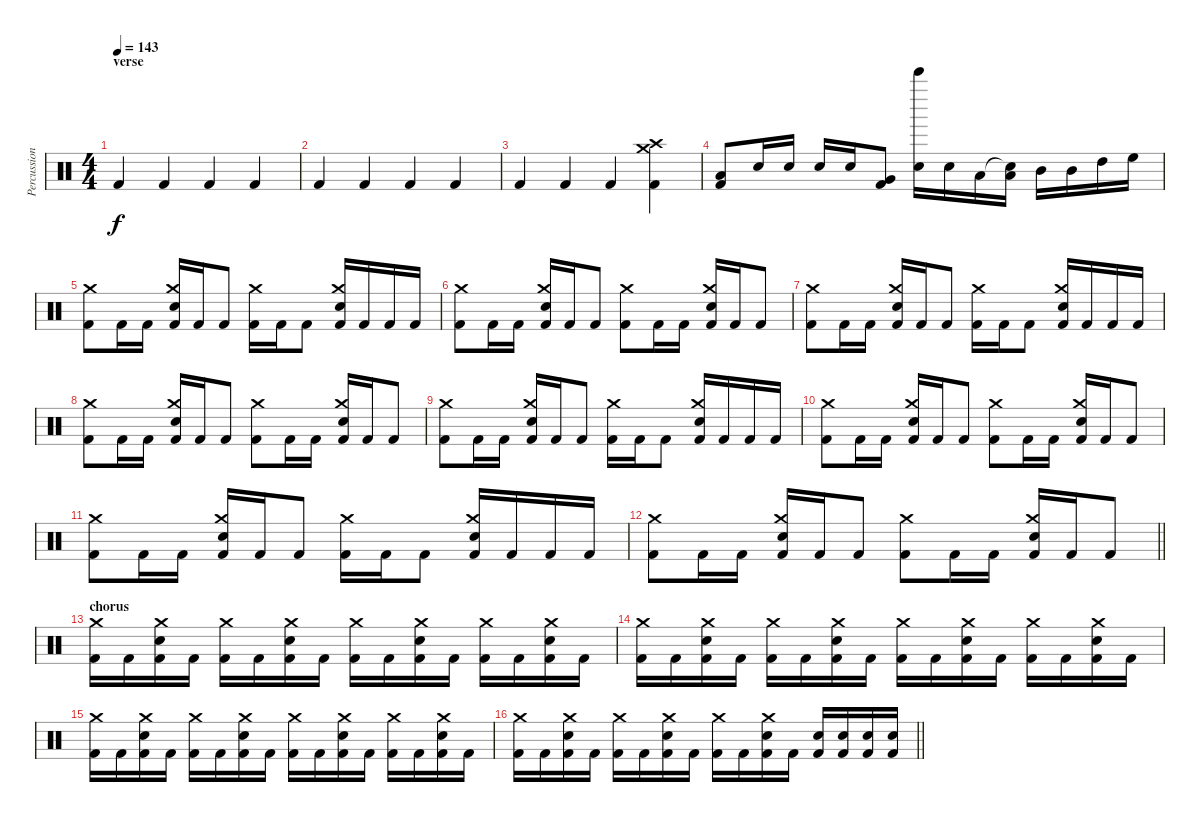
\track ("Percussion" "Percussion") {instrument percussion}
\staff {score}
\articulation defaults
\ts (4 4)
\section ("" "verse")
\tempo 143
\clef neutral
\ks c "Kick (hit) 2".4{dy f} "Kick (hit) 2".4 "Kick (hit) 2".4 "Kick (hit) 2".4
|
"Kick (hit) 2".4 "Kick (hit) 2".4 "Kick (hit) 2".4 "Kick (hit) 2".4 |
"Kick (hit) 2".4 "Kick (hit) 2".4 "Kick (hit) 2".4 ("Crash high (hit)" "Crash medium (hit)" "Kick (hit) 2").4 |
("Low Floor Tom (hit)" "Kick (hit) 2").8 "Snare (hit) 2".16 "Snare (hit) 2".16 "Snare (hit) 2".16 "Snare (hit) 2".16 ("Very Low Tom (hit)" "Kick (hit) 2").8 ("Bell Tree (hit)" "Snare (hit) 2").16 "Snare (hit) 2".16 "Low Tom (hit)".16 ("Snare (hit)"{t} "Low Tom (hit)").16 "Mid Tom (hit)".16 "Mid Tom (hit)".16 "High Tom (hit)".16 "High Floor Tom (hit)".16 |
("Crash medium (hit)" "Kick (hit) 2").8 "Kick (hit) 2".16 "Kick (hit) 2".16 ("Crash medium (hit)" "Snare (hit) 2" "Kick (hit) 2").16 "Kick (hit) 2".16 "Kick (hit) 2".8 ("Crash medium (hit)" "Kick (hit) 2").16 "Kick (hit) 2".16 "Kick (hit) 2".8 ("Crash medium (hit)" "Snare (hit) 2" "Kick (hit) 2").16 "Kick (hit) 2".16 "Kick (hit) 2".16 "Kick (hit) 2".16 |
("Crash medium (hit)" "Kick (hit) 2").8 "Kick (hit) 2".16 "Kick (hit) 2".16 ("Crash medium (hit)" "Snare (hit) 2" "Kick (hit) 2").16 "Kick (hit) 2".16 "Kick (hit) 2".8 ("Crash medium (hit)" "Kick (hit) 2").8 "Kick (hit) 2".16 "Kick (hit) 2".16 ("Crash medium (hit)" "Snare (hit) 2" "Kick (hit) 2").16 "Kick (hit) 2".16 "Kick (hit) 2".8 |
("Crash medium (hit)" "Kick (hit) 2").8 "Kick (hit) 2".16 "Kick (hit) 2".16 ("Crash medium (hit)" "Snare (hit) 2" "Kick (hit) 2").16 "Kick (hit) 2".16 "Kick (hit) 2".8 ("Crash medium (hit)" "Kick (hit) 2").16 "Kick (hit) 2".16 "Kick (hit) 2".8 ("Crash medium (hit)" "Snare (hit) 2" "Kick (hit) 2").16 "Kick (hit) 2".16 "Kick (hit) 2".16 "Kick (hit) 2".16 |
("Crash medium (hit)" "Kick (hit) 2").8 "Kick (hit) 2".16 "Kick (hit) 2".16 ("Crash medium (hit)" "Snare (hit) 2" "Kick (hit) 2").16 "Kick (hit) 2".16 "Kick (hit) 2".8 ("Crash medium (hit)" "Kick (hit) 2").8 "Kick (hit) 2".16 "Kick (hit) 2".16 ("Crash medium (hit)" "Snare (hit) 2" "Kick (hit) 2").16 "Kick (hit) 2".16 "Kick (hit) 2".8 |
("Crash medium (hit)" "Kick (hit) 2").8 "Kick (hit) 2".16 "Kick (hit) 2".16 ("Crash medium (hit)" "Snare (hit) 2" "Kick (hit) 2").16 "Kick (hit) 2".16 "Kick (hit) 2".8 ("Crash medium (hit)" "Kick (hit) 2").16 "Kick (hit) 2".16 "Kick (hit) 2".8 ("Crash medium (hit)" "Snare (hit) 2" "Kick (hit) 2").16 "Kick (hit) 2".16 "Kick (hit) 2".16 "Kick (hit) 2".16 |
("Crash medium (hit)" "Kick (hit) 2").8 "Kick (hit) 2".16 "Kick (hit) 2".16 ("Crash medium (hit)" "Snare (hit) 2" "Kick (hit) 2").16 "Kick (hit) 2".16 "Kick (hit) 2".8 ("Crash medium (hit)" "Kick (hit) 2").8 "Kick (hit) 2".16 "Kick (hit) 2".16 ("Crash medium (hit)" "Snare (hit) 2" "Kick (hit) 2").16 "Kick (hit) 2".16 "Kick (hit) 2".8 |
("Crash medium (hit)" "Kick (hit) 2").8 "Kick (hit) 2".16 "Kick (hit) 2".16 ("Crash medium (hit)" "Snare (hit) 2" "Kick (hit) 2").16 "Kick (hit) 2".16 "Kick (hit) 2".8 ("Crash medium (hit)" "Kick (hit) 2").16 "Kick (hit) 2".16 "Kick (hit) 2".8 ("Crash medium (hit)" "Snare (hit) 2" "Kick (hit) 2").16 "Kick (hit) 2".16 "Kick (hit) 2".16 "Kick (hit) 2".16 |
\barLineRight lightlight
("Crash medium (hit)" "Kick (hit) 2").8 "Kick (hit) 2".16 "Kick (hit) 2".16 ("Crash medium (hit)" "Snare (hit) 2" "Kick (hit) 2").16 "Kick (hit) 2".16 "Kick (hit) 2".8 ("Crash medium (hit)" "Kick (hit) 2").8 "Kick (hit) 2".16 "Kick (hit) 2".16 ("Crash medium (hit)" "Snare (hit) 2" "Kick (hit) 2").16 "Kick (hit) 2".16 "Kick (hit) 2".8 |
\section ("" "chorus")
("Crash medium (hit)" "Kick (hit) 2").16 "Kick (hit) 2".16 ("Crash medium (hit)" "Snare (hit) 2" "Kick (hit) 2").16 "Kick (hit) 2".16 ("Crash medium (hit)" "Kick (hit) 2").16 "Kick (hit) 2".16 ("Crash medium (hit)" "Snare (hit) 2" "Kick (hit) 2").16 "Kick (hit) 2".16 ("Crash medium (hit)" "Kick (hit) 2").16 "Kick (hit) 2".16 ("Crash medium (hit)" "Snare (hit) 2" "Kick (hit) 2").16 "Kick (hit) 2".16 ("Crash medium (hit)" "Kick (hit) 2").16 "Kick (hit) 2".16 ("Crash medium (hit)" "Snare (hit) 2" "Kick (hit) 2").16 "Kick (hit) 2".16 |
("Crash medium (hit)" "Kick (hit) 2").16 "Kick (hit) 2".16 ("Crash medium (hit)" "Snare (hit) 2" "Kick (hit) 2").16 "Kick (hit) 2".16 ("Crash medium (hit)" "Kick (hit) 2").16 "Kick (hit) 2".16 ("Crash medium (hit)" "Snare (hit) 2" "Kick (hit) 2").16 "Kick (hit) 2".16 ("Crash medium (hit)" "Kick (hit) 2").16 "Kick (hit) 2".16 ("Crash medium (hit)" "Snare (hit) 2" "Kick (hit) 2").16 "Kick (hit) 2".16 ("Crash medium (hit)" "Kick (hit) 2").16 "Kick (hit) 2".16 ("Crash medium (hit)" "Snare (hit) 2" "Kick (hit) 2").16 "Kick (hit) 2".16 |
("Crash medium (hit)" "Kick (hit) 2").16 "Kick (hit) 2".16 ("Crash medium (hit)" "Snare (hit) 2" "Kick (hit) 2").16 "Kick (hit) 2".16 ("Crash medium (hit)" "Kick (hit) 2").16 "Kick (hit) 2".16 ("Crash medium (hit)" "Snare (hit) 2" "Kick (hit) 2").16 "Kick (hit) 2".16 ("Crash medium (hit)" "Kick (hit) 2").16 "Kick (hit) 2".16 ("Crash medium (hit)" "Snare (hit) 2" "Kick (hit) 2").16 "Kick (hit) 2".16 ("Crash medium (hit)" "Kick (hit) 2").16 "Kick (hit) 2".16 ("Crash medium (hit)" "Snare (hit) 2" "Kick (hit) 2").16 "Kick (hit) 2".16 |
\barLineRight lightlight
("Crash medium (hit)" "Kick (hit) 2").16 "Kick (hit) 2".16 ("Crash medium (hit)" "Snare (hit) 2" "Kick (hit) 2").16 "Kick (hit) 2".16 ("Crash medium (hit)" "Kick (hit) 2").16 "Kick (hit) 2".16 ("Crash medium (hit)" "Snare (hit) 2" "Kick (hit) 2").16 "Kick (hit) 2".16 ("Crash medium (hit)" "Kick (hit) 2").16 "Kick (hit) 2".16 ("Crash medium (hit)" "Snare (hit) 2" "Kick (hit) 2").16 "Kick (hit) 2".16 ("Snare (hit) 2" "Kick (hit) 2").16 ("Snare (hit) 2" "Kick (hit) 2").16 ("Snare (hit) 2" "Kick (hit) 2").16 ("Snare (hit) 2" "Kick (hit) 2").16
